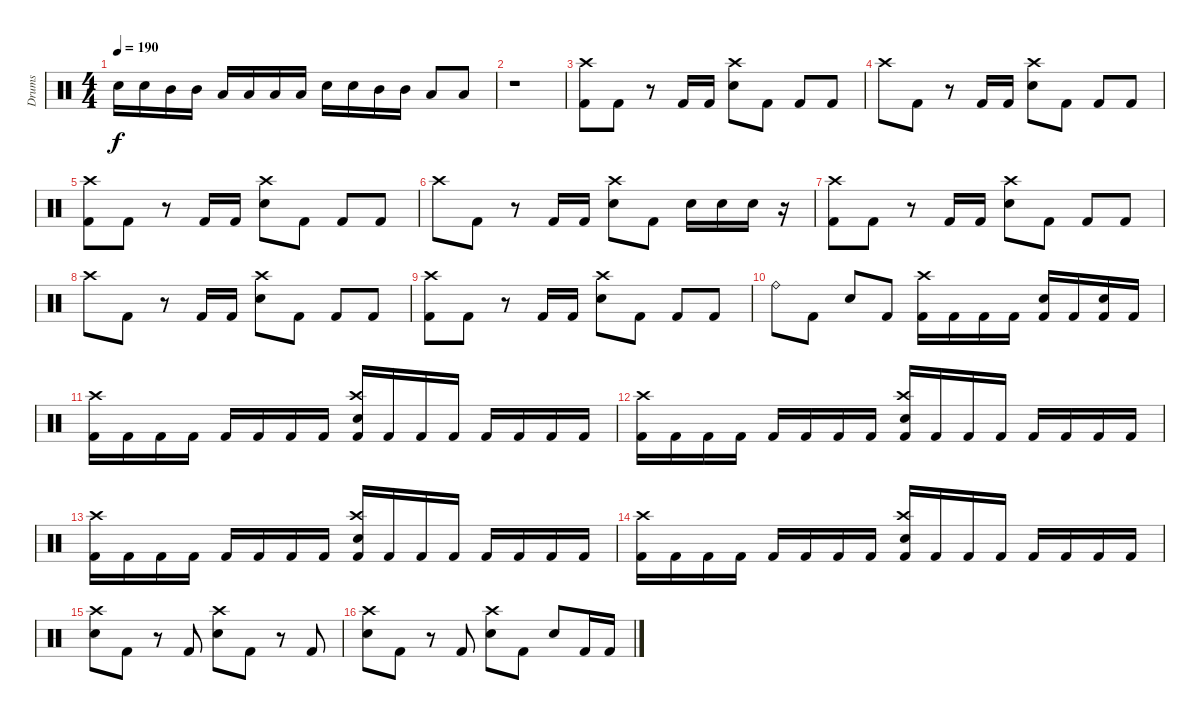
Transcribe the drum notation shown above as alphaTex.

\track ("Drums" "Drums") {instrument percussion}
\staff {score}
\articulation defaults
\ts (4 4)
\tempo 190
\clef neutral
\ks c "Electric Snare (hit)".16{dy f} "Electric Snare (hit)".16 "Mid Tom (hit)".16 "Mid Tom (hit)".16 "Low Tom (hit)".16 "Low Tom (hit)".16 "Low Tom (hit)".16 "Low Tom (hit)".16 "Electric Snare (hit)".16 "Electric Snare (hit)".16 "Mid Tom (hit)".16 "Mid Tom (hit)".16 "Low Tom (hit)".8 "Low Tom (hit)".8
|
r.1 |
("Crash high (hit)" "Kick (hit) 2").8 "Kick (hit) 2".8 r.8 "Kick (hit) 2".16 "Kick (hit) 2".16 ("Crash high (hit)" "Electric Snare (hit)").8 "Kick (hit) 2".8 "Kick (hit) 2".8 "Kick (hit) 2".8 |
"Crash high (hit)".8 "Kick (hit) 2".8 r.8 "Kick (hit) 2".16 "Kick (hit) 2".16 ("Crash high (hit)" "Electric Snare (hit)").8 "Kick (hit) 2".8 "Kick (hit) 2".8 "Kick (hit) 2".8 |
("Crash high (hit)" "Kick (hit) 2").8 "Kick (hit) 2".8 r.8 "Kick (hit) 2".16 "Kick (hit) 2".16 ("Crash high (hit)" "Electric Snare (hit)").8 "Kick (hit) 2".8 "Kick (hit) 2".8 "Kick (hit) 2".8 |
"Crash high (hit)".8 "Kick (hit) 2".8 r.8 "Kick (hit) 2".16 "Kick (hit) 2".16 ("Crash high (hit)" "Electric Snare (hit)").8 "Kick (hit) 2".8 "Electric Snare (hit)".16 "Electric Snare (hit)".16 "Electric Snare (hit)".16 r.16 |
("Crash high (hit)" "Kick (hit) 2").8 "Kick (hit) 2".8 r.8 "Kick (hit) 2".16 "Kick (hit) 2".16 ("Crash high (hit)" "Electric Snare (hit)").8 "Kick (hit) 2".8 "Kick (hit) 2".8 "Kick (hit) 2".8 |
"Crash high (hit)".8 "Kick (hit) 2".8 r.8 "Kick (hit) 2".16 "Kick (hit) 2".16 ("Crash high (hit)" "Electric Snare (hit)").8 "Kick (hit) 2".8 "Kick (hit) 2".8 "Kick (hit) 2".8 |
("Crash high (hit)" "Kick (hit) 2").8 "Kick (hit) 2".8 r.8 "Kick (hit) 2".16 "Kick (hit) 2".16 ("Crash high (hit)" "Electric Snare (hit)").8 "Kick (hit) 2".8 "Kick (hit) 2".8 "Kick (hit) 2".8 |
"Ride (bell)".8 "Kick (hit) 2".8 "Electric Snare (hit)".8 "Kick (hit) 2".8 ("Crash high (hit)" "Kick (hit) 2").16 "Kick (hit) 2".16 "Kick (hit) 2".16 "Kick (hit) 2".16 ("Electric Snare (hit)" "Kick (hit) 2").16 "Kick (hit) 2".16 ("Electric Snare (hit)" "Kick (hit) 2").16 "Kick (hit) 2".16 |
("Crash high (hit)" "Kick (hit) 2").16 "Kick (hit) 2".16 "Kick (hit) 2".16 "Kick (hit) 2".16 "Kick (hit) 2".16 "Kick (hit) 2".16 "Kick (hit) 2".16 "Kick (hit) 2".16 ("Crash high (hit)" "Electric Snare (hit)" "Kick (hit) 2").16 "Kick (hit) 2".16 "Kick (hit) 2".16 "Kick (hit) 2".16 "Kick (hit) 2".16 "Kick (hit) 2".16 "Kick (hit) 2".16 "Kick (hit) 2".16 |
("Crash high (hit)" "Kick (hit) 2").16 "Kick (hit) 2".16 "Kick (hit) 2".16 "Kick (hit) 2".16 "Kick (hit) 2".16 "Kick (hit) 2".16 "Kick (hit) 2".16 "Kick (hit) 2".16 ("Crash high (hit)" "Electric Snare (hit)" "Kick (hit) 2").16 "Kick (hit) 2".16 "Kick (hit) 2".16 "Kick (hit) 2".16 "Kick (hit) 2".16 "Kick (hit) 2".16 "Kick (hit) 2".16 "Kick (hit) 2".16 |
("Crash high (hit)" "Kick (hit) 2").16 "Kick (hit) 2".16 "Kick (hit) 2".16 "Kick (hit) 2".16 "Kick (hit) 2".16 "Kick (hit) 2".16 "Kick (hit) 2".16 "Kick (hit) 2".16 ("Crash high (hit)" "Electric Snare (hit)" "Kick (hit) 2").16 "Kick (hit) 2".16 "Kick (hit) 2".16 "Kick (hit) 2".16 "Kick (hit) 2".16 "Kick (hit) 2".16 "Kick (hit) 2".16 "Kick (hit) 2".16 |
("Crash high (hit)" "Kick (hit) 2").16 "Kick (hit) 2".16 "Kick (hit) 2".16 "Kick (hit) 2".16 "Kick (hit) 2".16 "Kick (hit) 2".16 "Kick (hit) 2".16 "Kick (hit) 2".16 ("Crash high (hit)" "Electric Snare (hit)" "Kick (hit) 2").16 "Kick (hit) 2".16 "Kick (hit) 2".16 "Kick (hit) 2".16 "Kick (hit) 2".16 "Kick (hit) 2".16 "Kick (hit) 2".16 "Kick (hit) 2".16 |
("Crash high (hit)" "Electric Snare (hit)").8 "Kick (hit) 2".8 r.8 "Kick (hit) 2".8 ("Crash high (hit)" "Electric Snare (hit)").8 "Kick (hit) 2".8 r.8 "Kick (hit) 2".8 |
("Crash high (hit)" "Electric Snare (hit)").8 "Kick (hit) 2".8 r.8 "Kick (hit) 2".8 ("Crash high (hit)" "Electric Snare (hit)").8 "Kick (hit) 2".8 "Electric Snare (hit)".8 "Kick (hit) 2".16 "Kick (hit) 2".16
